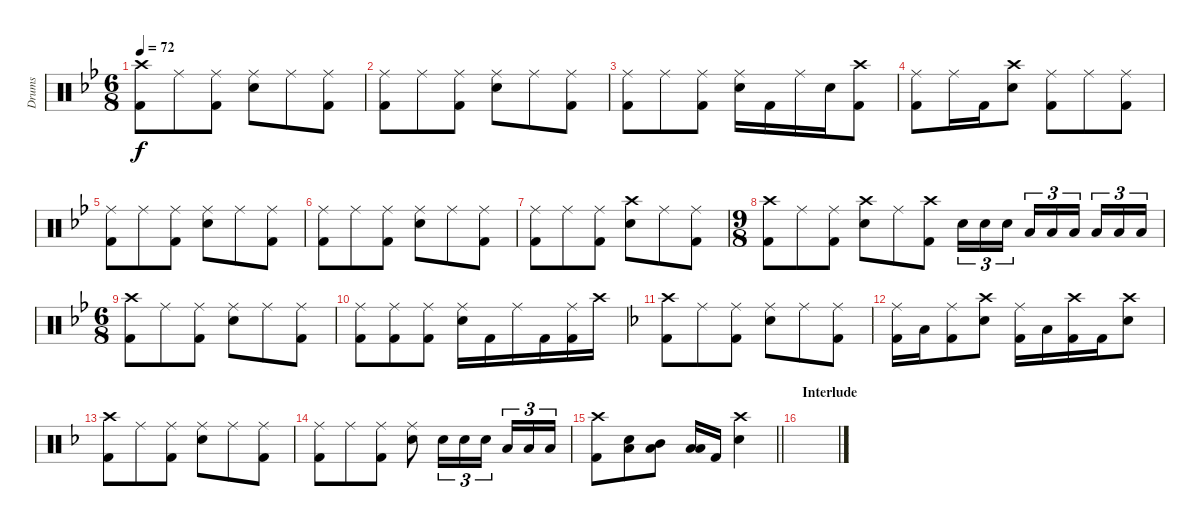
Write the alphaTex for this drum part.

\track ("Drums" "Drums") {instrument percussion}
\staff {score}
\articulation defaults
\ts (6 8)
\tempo 72
\clef neutral
\ks bb
("Crash high (hit)" "Kick (hit) 2").8{dy f} "Ride (middle)".8 ("Ride (middle)" "Kick (hit) 2").8 ("Ride (middle)" "Electric Snare (hit)").8 "Ride (middle)".8 ("Ride (middle)" "Kick (hit) 2").8 |
("Ride (middle)" "Kick (hit) 2").8 "Ride (middle)".8 ("Ride (middle)" "Kick (hit) 2").8 ("Ride (middle)" "Electric Snare (hit)").8 "Ride (middle)".8 ("Ride (middle)" "Kick (hit) 2").8 |
("Ride (middle)" "Kick (hit) 2").8 "Ride (middle)".8 ("Ride (middle)" "Kick (hit) 2").8 ("Ride (middle)" "Electric Snare (hit)").16 "Kick (hit) 2".16 "Ride (middle)".16 "Electric Snare (hit)".16 ("Crash high (hit)" "Kick (hit) 2").8 |
("Ride (middle)" "Kick (hit) 2").8 "Ride (middle)".16 "Kick (hit) 2".16 ("Crash high (hit)" "Electric Snare (hit)").8 ("Ride (middle)" "Kick (hit) 2").8 "Ride (middle)".8 ("Ride (middle)" "Kick (hit) 2").8 |
("Ride (middle)" "Kick (hit) 2").8 "Ride (middle)".8 ("Ride (middle)" "Kick (hit) 2").8 ("Ride (middle)" "Electric Snare (hit)").8 "Ride (middle)".8 ("Ride (middle)" "Kick (hit) 2").8 |
("Ride (middle)" "Kick (hit) 2").8 "Ride (middle)".8 ("Ride (middle)" "Kick (hit) 2").8 ("Ride (middle)" "Electric Snare (hit)").8 "Ride (middle)".8 ("Ride (middle)" "Kick (hit) 2").8 |
("Ride (middle)" "Kick (hit) 2").8 "Ride (middle)".8 ("Ride (middle)" "Kick (hit) 2").8 ("Crash high (hit)" "Electric Snare (hit)").8 "Ride (middle)".8 ("Ride (middle)" "Kick (hit) 2").8 |
\ts (9 8)
("Crash high (hit)" "Kick (hit) 2").8 "Ride (middle)".8 ("Ride (middle)" "Kick (hit) 2").8 ("Crash high (hit)" "Electric Snare (hit)").8 "Ride (middle)".8 ("Crash high (hit)" "Kick (hit) 2").8 "Electric Snare (hit)".16{tu (3 2)} "Electric Snare (hit)".16{tu (3 2)} "Electric Snare (hit)".16{tu (3 2) beam splitsecondary} "Low Tom (hit)".16{tu (3 2)} "Low Tom (hit)".16{tu (3 2)} "Low Tom (hit)".16{tu (3 2) beam splitsecondary} "Low Floor Tom (hit)".16{tu (3 2)} "Low Floor Tom (hit)".16{tu (3 2)} "Low Floor Tom (hit)".16{tu (3 2)} |
\ts (6 8)
("Crash high (hit)" "Kick (hit) 2").8 "Ride (middle)".8 ("Ride (middle)" "Kick (hit) 2").8 ("Ride (middle)" "Electric Snare (hit)").8 "Ride (middle)".8 ("Ride (middle)" "Kick (hit) 2").8 |
("Ride (middle)" "Kick (hit) 2").8 ("Ride (middle)" "Kick (hit) 2").8 ("Ride (middle)" "Kick (hit) 2").8 ("Ride (middle)" "Electric Snare (hit)").16 "Kick (hit) 2".16 "Ride (middle)".16 "Kick (hit) 2".16 ("Ride (middle)" "Kick (hit) 2").16 "Crash high (hit)".16 |
\ks f
("Crash high (hit)" "Kick (hit) 2").8 "Ride (middle)".8 ("Ride (middle)" "Kick (hit) 2").8 ("Ride (middle)" "Electric Snare (hit)").8 "Ride (middle)".8 ("Ride (middle)" "Kick (hit) 2").8 |
("Ride (middle)" "Kick (hit) 2").16 "Low Tom (hit)".16 ("Ride (middle)" "Kick (hit) 2").8 ("Crash high (hit)" "Electric Snare (hit)").8 ("Ride (middle)" "Kick (hit) 2").16 "Low Tom (hit)".16 ("Crash high (hit)" "Kick (hit) 2").16 "Kick (hit) 2".16 ("Crash high (hit)" "Electric Snare (hit)").8 |
("Crash high (hit)" "Kick (hit) 2").8 "Ride (middle)".8 ("Ride (middle)" "Kick (hit) 2").8 ("Ride (middle)" "Electric Snare (hit)").8 "Ride (middle)".8 ("Ride (middle)" "Kick (hit) 2").8 |
("Ride (middle)" "Kick (hit) 2").8 "Ride (middle)".8 ("Ride (middle)" "Kick (hit) 2").8 ("Ride (middle)" "Electric Snare (hit)").8 "Electric Snare (hit)".16{tu (3 2)} "Electric Snare (hit)".16{tu (3 2)} "Electric Snare (hit)".16{tu (3 2) beam splitsecondary} "Low Tom (hit)".16{tu (3 2)} "Low Tom (hit)".16{tu (3 2)} "Low Tom (hit)".16{tu (3 2)} |
\barLineRight lightlight
("Crash high (hit)" "Kick (hit) 2").8 ("Low Floor Tom (hit)" "Electric Snare (hit)").8 ("Mid Tom (hit)" "Low Floor Tom (hit)").8 ("Low Tom (hit)" "Low Floor Tom (hit)").16 "Kick (hit) 2".16 ("Crash high (hit)" "Electric Snare (hit)").4 |
\section ("" "Interlude")
